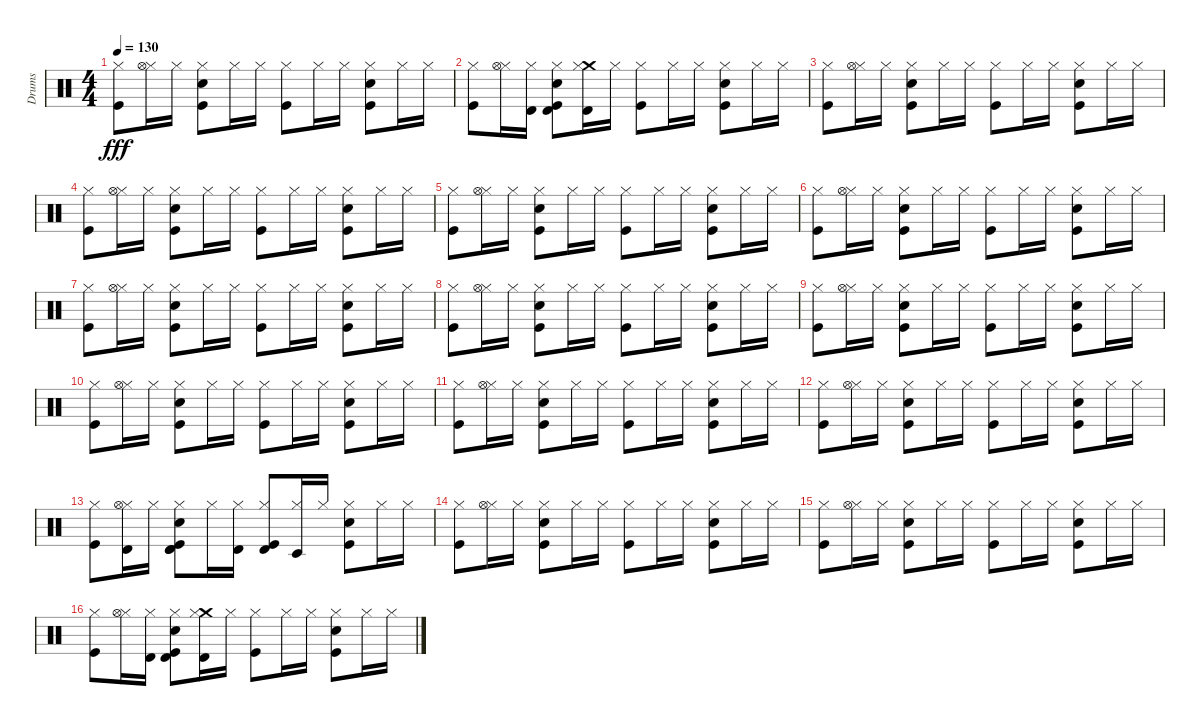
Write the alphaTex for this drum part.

\track ("Drums" "Drums") {instrument percussion}
\staff {score}
\articulation defaults
\ts (4 4)
\tempo 130
\clef neutral
\ks c
("Kick (hit)" "Hi-Hat (closed)").8{dy fff} ("Hi-Hat (closed)" "Hi-Hat (open)").16 "Hi-Hat (closed)".16 ("Kick (hit)" "Electric Snare (hit)" "Hi-Hat (closed)").8 "Hi-Hat (closed)".16 "Hi-Hat (closed)".16 ("Kick (hit)" "Hi-Hat (closed)").8 "Hi-Hat (closed)".16 "Hi-Hat (closed)".16 ("Kick (hit)" "Electric Snare (hit)" "Hi-Hat (closed)").8 "Hi-Hat (closed)".16 "Hi-Hat (closed)".16 |
("Kick (hit)" "Hi-Hat (closed)").8 ("Hi-Hat (closed)" "Hi-Hat (open)").16 ("Hi-Hat (closed)" "Timbale high (hit)").16 ("Kick (hit)" "Electric Snare (hit)" "Hi-Hat (closed)" "Timbale high (hit)").8 ("Crash medium (hit)" "Hi-Hat (closed)" "Timbale high (hit)").16 "Hi-Hat (closed)".16 ("Kick (hit)" "Hi-Hat (closed)").8 "Hi-Hat (closed)".16 "Hi-Hat (closed)".16 ("Kick (hit)" "Electric Snare (hit)" "Hi-Hat (closed)").8 "Hi-Hat (closed)".16 "Hi-Hat (closed)".16 |
("Kick (hit)" "Hi-Hat (closed)").8 ("Hi-Hat (closed)" "Hi-Hat (open)").16 "Hi-Hat (closed)".16 ("Kick (hit)" "Electric Snare (hit)" "Hi-Hat (closed)").8 "Hi-Hat (closed)".16 "Hi-Hat (closed)".16 ("Kick (hit)" "Hi-Hat (closed)").8 "Hi-Hat (closed)".16 "Hi-Hat (closed)".16 ("Kick (hit)" "Electric Snare (hit)" "Hi-Hat (closed)").8 "Hi-Hat (closed)".16 "Hi-Hat (closed)".16 |
("Kick (hit)" "Hi-Hat (closed)").8 ("Hi-Hat (closed)" "Hi-Hat (open)").16 "Hi-Hat (closed)".16 ("Kick (hit)" "Electric Snare (hit)" "Hi-Hat (closed)").8 "Hi-Hat (closed)".16 "Hi-Hat (closed)".16 ("Kick (hit)" "Hi-Hat (closed)").8 "Hi-Hat (closed)".16 "Hi-Hat (closed)".16 ("Kick (hit)" "Electric Snare (hit)" "Hi-Hat (closed)").8 "Hi-Hat (closed)".16 "Hi-Hat (closed)".16 |
("Kick (hit)" "Hi-Hat (closed)").8 ("Hi-Hat (closed)" "Hi-Hat (open)").16 "Hi-Hat (closed)".16 ("Kick (hit)" "Electric Snare (hit)" "Hi-Hat (closed)").8 "Hi-Hat (closed)".16 "Hi-Hat (closed)".16 ("Kick (hit)" "Hi-Hat (closed)").8 "Hi-Hat (closed)".16 "Hi-Hat (closed)".16 ("Kick (hit)" "Electric Snare (hit)" "Hi-Hat (closed)").8 "Hi-Hat (closed)".16 "Hi-Hat (closed)".16 |
("Kick (hit)" "Hi-Hat (closed)").8 ("Hi-Hat (closed)" "Hi-Hat (open)").16 "Hi-Hat (closed)".16 ("Kick (hit)" "Electric Snare (hit)" "Hi-Hat (closed)").8 "Hi-Hat (closed)".16 "Hi-Hat (closed)".16 ("Kick (hit)" "Hi-Hat (closed)").8 "Hi-Hat (closed)".16 "Hi-Hat (closed)".16 ("Kick (hit)" "Electric Snare (hit)" "Hi-Hat (closed)").8 "Hi-Hat (closed)".16 "Hi-Hat (closed)".16 |
("Kick (hit)" "Hi-Hat (closed)").8 ("Hi-Hat (closed)" "Hi-Hat (open)").16 "Hi-Hat (closed)".16 ("Kick (hit)" "Electric Snare (hit)" "Hi-Hat (closed)").8 "Hi-Hat (closed)".16 "Hi-Hat (closed)".16 ("Kick (hit)" "Hi-Hat (closed)").8 "Hi-Hat (closed)".16 "Hi-Hat (closed)".16 ("Kick (hit)" "Electric Snare (hit)" "Hi-Hat (closed)").8 "Hi-Hat (closed)".16 "Hi-Hat (closed)".16 |
("Kick (hit)" "Hi-Hat (closed)").8 ("Hi-Hat (closed)" "Hi-Hat (open)").16 "Hi-Hat (closed)".16 ("Kick (hit)" "Electric Snare (hit)" "Hi-Hat (closed)").8 "Hi-Hat (closed)".16 "Hi-Hat (closed)".16 ("Kick (hit)" "Hi-Hat (closed)").8 "Hi-Hat (closed)".16 "Hi-Hat (closed)".16 ("Kick (hit)" "Electric Snare (hit)" "Hi-Hat (closed)").8 "Hi-Hat (closed)".16 "Hi-Hat (closed)".16 |
("Kick (hit)" "Hi-Hat (closed)").8 ("Hi-Hat (closed)" "Hi-Hat (open)").16 "Hi-Hat (closed)".16 ("Kick (hit)" "Electric Snare (hit)" "Hi-Hat (closed)").8 "Hi-Hat (closed)".16 "Hi-Hat (closed)".16 ("Kick (hit)" "Hi-Hat (closed)").8 "Hi-Hat (closed)".16 "Hi-Hat (closed)".16 ("Kick (hit)" "Electric Snare (hit)" "Hi-Hat (closed)").8 "Hi-Hat (closed)".16 "Hi-Hat (closed)".16 |
("Kick (hit)" "Hi-Hat (closed)").8 ("Hi-Hat (closed)" "Hi-Hat (open)").16 "Hi-Hat (closed)".16 ("Kick (hit)" "Electric Snare (hit)" "Hi-Hat (closed)").8 "Hi-Hat (closed)".16 "Hi-Hat (closed)".16 ("Kick (hit)" "Hi-Hat (closed)").8 "Hi-Hat (closed)".16 "Hi-Hat (closed)".16 ("Kick (hit)" "Electric Snare (hit)" "Hi-Hat (closed)").8 "Hi-Hat (closed)".16 "Hi-Hat (closed)".16 |
("Kick (hit)" "Hi-Hat (closed)").8 ("Hi-Hat (closed)" "Hi-Hat (open)").16 "Hi-Hat (closed)".16 ("Kick (hit)" "Electric Snare (hit)" "Hi-Hat (closed)").8 "Hi-Hat (closed)".16 "Hi-Hat (closed)".16 ("Kick (hit)" "Hi-Hat (closed)").8 "Hi-Hat (closed)".16 "Hi-Hat (closed)".16 ("Kick (hit)" "Electric Snare (hit)" "Hi-Hat (closed)").8 "Hi-Hat (closed)".16 "Hi-Hat (closed)".16 |
("Kick (hit)" "Hi-Hat (closed)").8 ("Hi-Hat (closed)" "Hi-Hat (open)").16 "Hi-Hat (closed)".16 ("Kick (hit)" "Electric Snare (hit)" "Hi-Hat (closed)").8 "Hi-Hat (closed)".16 "Hi-Hat (closed)".16 ("Kick (hit)" "Hi-Hat (closed)").8 "Hi-Hat (closed)".16 "Hi-Hat (closed)".16 ("Kick (hit)" "Electric Snare (hit)" "Hi-Hat (closed)").8 "Hi-Hat (closed)".16 "Hi-Hat (closed)".16 |
("Kick (hit)" "Hi-Hat (closed)").8 ("Hi-Hat (closed)" "Hi-Hat (open)" "Timbale high (hit)").16 "Hi-Hat (closed)".16 ("Kick (hit)" "Electric Snare (hit)" "Hi-Hat (closed)" "Timbale high (hit)" "Timbale high (hit)").8 "Hi-Hat (closed)".16 ("Hi-Hat (closed)" "Timbale high (hit)").16 ("Kick (hit)" "Hi-Hat (closed)" "Timbale high (hit)").8 ("Hi-Hat (closed)" "Timbale low (hit)").16 "Hi-Hat (closed)".16 ("Kick (hit)" "Electric Snare (hit)" "Hi-Hat (closed)").8 "Hi-Hat (closed)".16 "Hi-Hat (closed)".16 |
("Kick (hit)" "Hi-Hat (closed)").8 ("Hi-Hat (closed)" "Hi-Hat (open)").16 "Hi-Hat (closed)".16 ("Kick (hit)" "Electric Snare (hit)" "Hi-Hat (closed)").8 "Hi-Hat (closed)".16 "Hi-Hat (closed)".16 ("Kick (hit)" "Hi-Hat (closed)").8 "Hi-Hat (closed)".16 "Hi-Hat (closed)".16 ("Kick (hit)" "Electric Snare (hit)" "Hi-Hat (closed)").8 "Hi-Hat (closed)".16 "Hi-Hat (closed)".16 |
("Kick (hit)" "Hi-Hat (closed)").8 ("Hi-Hat (closed)" "Hi-Hat (open)").16 "Hi-Hat (closed)".16 ("Kick (hit)" "Electric Snare (hit)" "Hi-Hat (closed)").8 "Hi-Hat (closed)".16 "Hi-Hat (closed)".16 ("Kick (hit)" "Hi-Hat (closed)").8 "Hi-Hat (closed)".16 "Hi-Hat (closed)".16 ("Kick (hit)" "Electric Snare (hit)" "Hi-Hat (closed)").8 "Hi-Hat (closed)".16 "Hi-Hat (closed)".16 |
("Kick (hit)" "Hi-Hat (closed)").8 ("Hi-Hat (closed)" "Hi-Hat (open)").16 ("Hi-Hat (closed)" "Timbale high (hit)").16 ("Kick (hit)" "Electric Snare (hit)" "Hi-Hat (closed)" "Timbale high (hit)").8 ("Crash medium (hit)" "Hi-Hat (closed)" "Timbale high (hit)").16 "Hi-Hat (closed)".16 ("Kick (hit)" "Hi-Hat (closed)").8 "Hi-Hat (closed)".16 "Hi-Hat (closed)".16 ("Kick (hit)" "Electric Snare (hit)" "Hi-Hat (closed)").8 "Hi-Hat (closed)".16 "Hi-Hat (closed)".16
